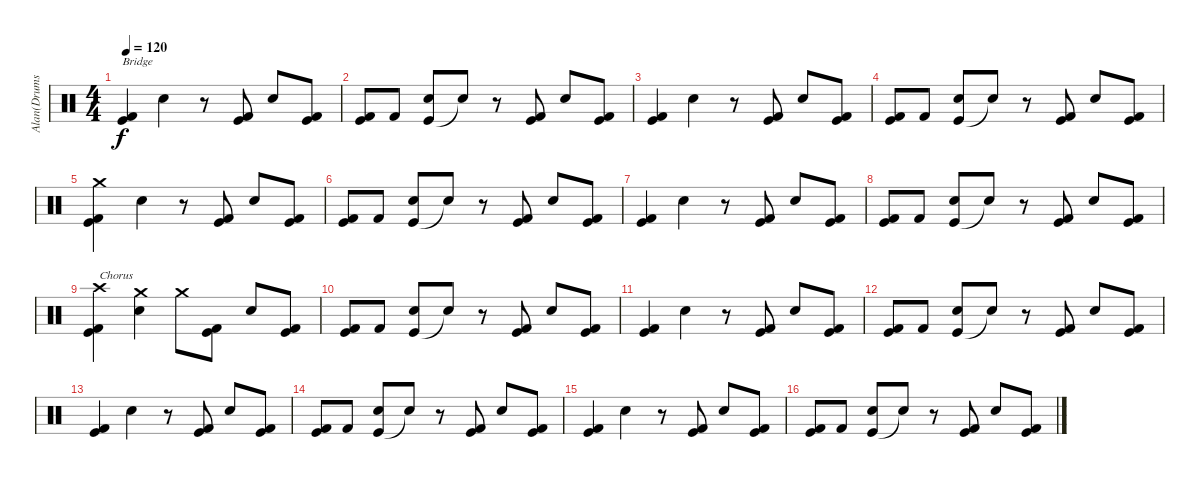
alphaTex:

\track ("Alan(Drums)" "Alan(Drums") {instrument percussion}
\staff {score}
\articulation defaults
\ts (4 4)
\tempo 120
\clef neutral
\ks c
("Kick (hit) 2" "Kick (hit)").4{txt "Bridge" dy f} "Electric Snare (hit)".4 r.8 ("Kick (hit)" "Kick (hit) 2").8 "Electric Snare (hit)".8 ("Kick (hit)" "Kick (hit) 2").8 |
("Kick (hit)" "Kick (hit) 2").8 "Kick (hit) 2".8 ("Kick (hit)" "Electric Snare (hit)").8 "Snare (hit)"{t}.8 r.8 ("Kick (hit)" "Kick (hit) 2").8 "Electric Snare (hit)".8 ("Kick (hit)" "Kick (hit) 2").8 |
("Kick (hit) 2" "Kick (hit)").4 "Electric Snare (hit)".4 r.8 ("Kick (hit)" "Kick (hit) 2").8 "Electric Snare (hit)".8 ("Kick (hit)" "Kick (hit) 2").8 |
("Kick (hit)" "Kick (hit) 2").8 "Kick (hit) 2".8 ("Kick (hit)" "Electric Snare (hit)").8 "Snare (hit)"{t}.8 r.8 ("Kick (hit)" "Kick (hit) 2").8 "Electric Snare (hit)".8 ("Kick (hit)" "Kick (hit) 2").8 |
("Kick (hit) 2" "Kick (hit)" "Crash medium (hit)").4 "Electric Snare (hit)".4 r.8 ("Kick (hit)" "Kick (hit) 2").8 "Electric Snare (hit)".8 ("Kick (hit)" "Kick (hit) 2").8 |
("Kick (hit)" "Kick (hit) 2").8 "Kick (hit) 2".8 ("Kick (hit)" "Electric Snare (hit)").8 "Snare (hit)"{t}.8 r.8 ("Kick (hit)" "Kick (hit) 2").8 "Electric Snare (hit)".8 ("Kick (hit)" "Kick (hit) 2").8 |
("Kick (hit) 2" "Kick (hit)").4 "Electric Snare (hit)".4 r.8 ("Kick (hit)" "Kick (hit) 2").8 "Electric Snare (hit)".8 ("Kick (hit)" "Kick (hit) 2").8 |
("Kick (hit)" "Kick (hit) 2").8 "Kick (hit) 2".8 ("Kick (hit)" "Electric Snare (hit)").8 "Snare (hit)"{t}.8 r.8 ("Kick (hit)" "Kick (hit) 2").8 "Electric Snare (hit)".8 ("Kick (hit)" "Kick (hit) 2").8 |
("Kick (hit) 2" "Kick (hit)" "Crash high (hit)").4{txt "Chorus"} ("Electric Snare (hit)" "Crash medium (hit)").4 "Crash medium (hit)".8 ("Kick (hit)" "Kick (hit) 2").8 "Electric Snare (hit)".8 ("Kick (hit)" "Kick (hit) 2").8 |
("Kick (hit)" "Kick (hit) 2").8 "Kick (hit) 2".8 ("Kick (hit)" "Electric Snare (hit)").8 "Snare (hit)"{t}.8 r.8 ("Kick (hit)" "Kick (hit) 2").8 "Electric Snare (hit)".8 ("Kick (hit)" "Kick (hit) 2").8 |
("Kick (hit) 2" "Kick (hit)").4 "Electric Snare (hit)".4 r.8 ("Kick (hit)" "Kick (hit) 2").8 "Electric Snare (hit)".8 ("Kick (hit)" "Kick (hit) 2").8 |
("Kick (hit)" "Kick (hit) 2").8 "Kick (hit) 2".8 ("Kick (hit)" "Electric Snare (hit)").8 "Snare (hit)"{t}.8 r.8 ("Kick (hit)" "Kick (hit) 2").8 "Electric Snare (hit)".8 ("Kick (hit)" "Kick (hit) 2").8 |
("Kick (hit) 2" "Kick (hit)").4 "Electric Snare (hit)".4 r.8 ("Kick (hit)" "Kick (hit) 2").8 "Electric Snare (hit)".8 ("Kick (hit)" "Kick (hit) 2").8 |
("Kick (hit)" "Kick (hit) 2").8 "Kick (hit) 2".8 ("Kick (hit)" "Electric Snare (hit)").8 "Snare (hit)"{t}.8 r.8 ("Kick (hit)" "Kick (hit) 2").8 "Electric Snare (hit)".8 ("Kick (hit)" "Kick (hit) 2").8 |
("Kick (hit) 2" "Kick (hit)").4 "Electric Snare (hit)".4 r.8 ("Kick (hit)" "Kick (hit) 2").8 "Electric Snare (hit)".8 ("Kick (hit)" "Kick (hit) 2").8 |
("Kick (hit)" "Kick (hit) 2").8 "Kick (hit) 2".8 ("Kick (hit)" "Electric Snare (hit)").8 "Snare (hit)"{t}.8 r.8 ("Kick (hit)" "Kick (hit) 2").8 "Electric Snare (hit)".8 ("Kick (hit)" "Kick (hit) 2").8
